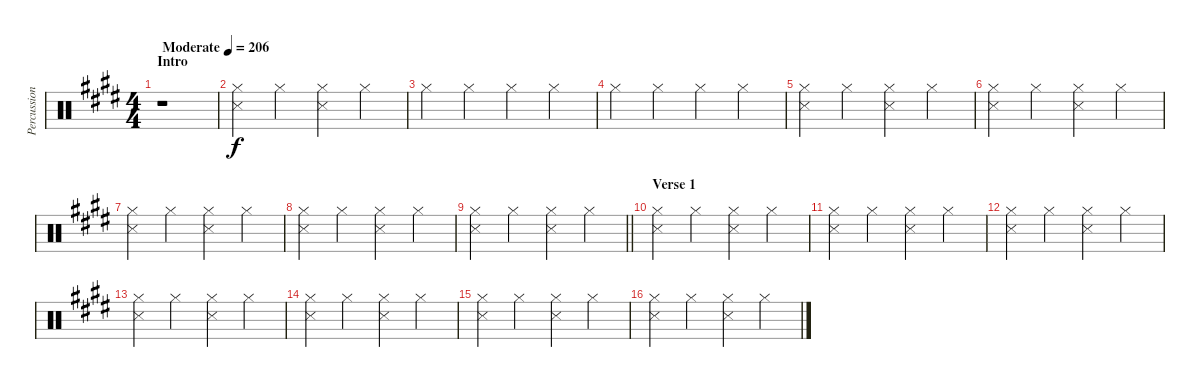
\track ("Percussion" "Percussion") {instrument percussion}
\staff {score}
\articulation defaults
\ts (4 4)
\section ("" "Intro")
\tempo (206 "Moderate")
\clef neutral
\ks e
r.1{dy f} |
("Hi-Hat (closed)" "Snare (side stick) 3").4 "Hi-Hat (closed)".4 ("Hi-Hat (closed)" "Snare (side stick) 3").4 "Hi-Hat (closed)".4 |
"Hi-Hat (closed)".4 "Hi-Hat (closed)".4 "Hi-Hat (closed)".4 "Hi-Hat (closed)".4 |
"Hi-Hat (closed)".4 "Hi-Hat (closed)".4 "Hi-Hat (closed)".4 "Hi-Hat (closed)".4 |
("Hi-Hat (closed)" "Snare (side stick) 3").4 "Hi-Hat (closed)".4 ("Hi-Hat (closed)" "Snare (side stick) 3").4 "Hi-Hat (closed)".4 |
("Hi-Hat (closed)" "Snare (side stick) 3").4 "Hi-Hat (closed)".4 ("Hi-Hat (closed)" "Snare (side stick) 3").4 "Hi-Hat (closed)".4 |
("Hi-Hat (closed)" "Snare (side stick) 3").4 "Hi-Hat (closed)".4 ("Hi-Hat (closed)" "Snare (side stick) 3").4 "Hi-Hat (closed)".4 |
("Hi-Hat (closed)" "Snare (side stick) 3").4 "Hi-Hat (closed)".4 ("Hi-Hat (closed)" "Snare (side stick) 3").4 "Hi-Hat (closed)".4 |
\barLineRight lightlight
("Hi-Hat (closed)" "Snare (side stick) 3").4 "Hi-Hat (closed)".4 ("Hi-Hat (closed)" "Snare (side stick) 3").4 "Hi-Hat (closed)".4 |
\section ("" "Verse 1")
("Hi-Hat (closed)" "Snare (side stick) 3").4 "Hi-Hat (closed)".4 ("Hi-Hat (closed)" "Snare (side stick) 3").4 "Hi-Hat (closed)".4 |
("Hi-Hat (closed)" "Snare (side stick) 3").4 "Hi-Hat (closed)".4 ("Hi-Hat (closed)" "Snare (side stick) 3").4 "Hi-Hat (closed)".4 |
("Hi-Hat (closed)" "Snare (side stick) 3").4 "Hi-Hat (closed)".4 ("Hi-Hat (closed)" "Snare (side stick) 3").4 "Hi-Hat (closed)".4 |
("Hi-Hat (closed)" "Snare (side stick) 3").4 "Hi-Hat (closed)".4 ("Hi-Hat (closed)" "Snare (side stick) 3").4 "Hi-Hat (closed)".4 |
("Hi-Hat (closed)" "Snare (side stick) 3").4 "Hi-Hat (closed)".4 ("Hi-Hat (closed)" "Snare (side stick) 3").4 "Hi-Hat (closed)".4 |
("Hi-Hat (closed)" "Snare (side stick) 3").4 "Hi-Hat (closed)".4 ("Hi-Hat (closed)" "Snare (side stick) 3").4 "Hi-Hat (closed)".4 |
("Hi-Hat (closed)" "Snare (side stick) 3").4 "Hi-Hat (closed)".4 ("Hi-Hat (closed)" "Snare (side stick) 3").4 "Hi-Hat (closed)".4
